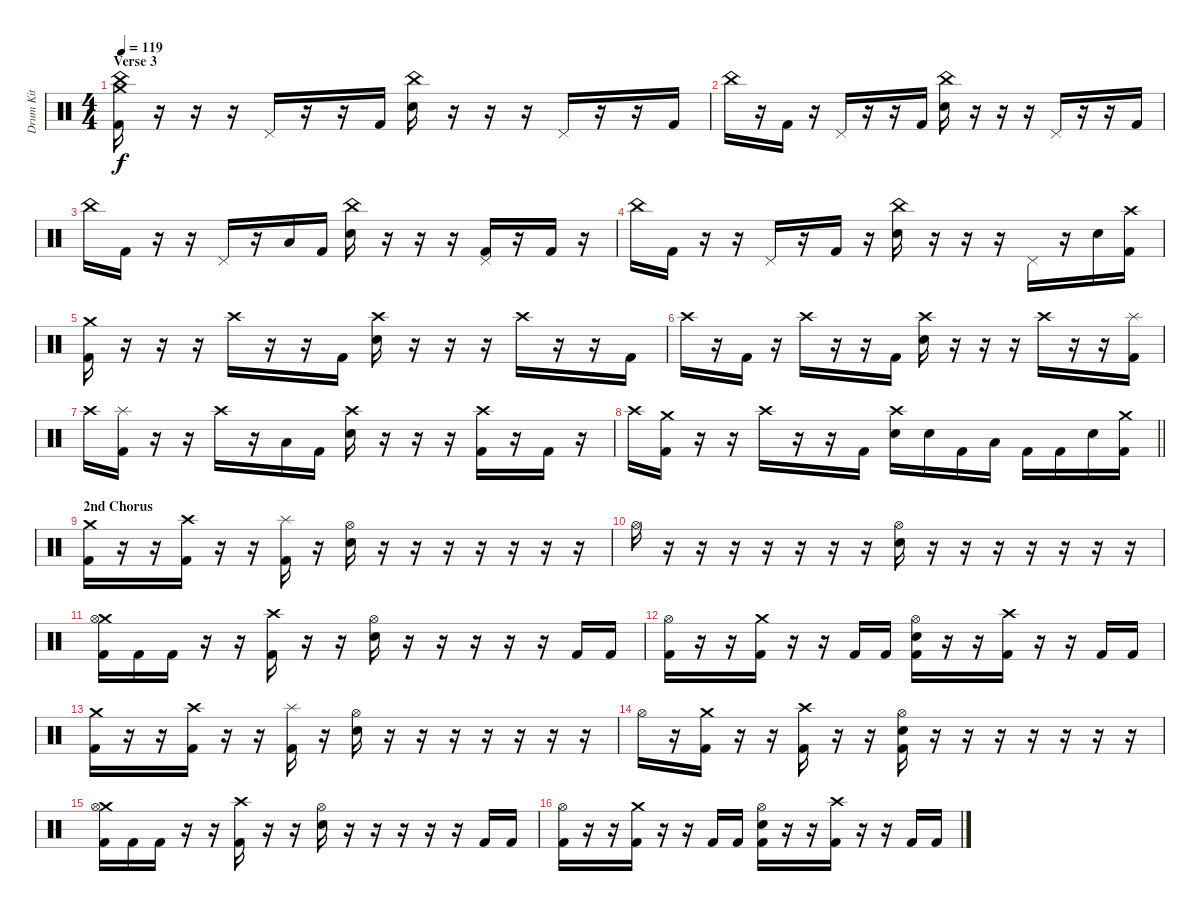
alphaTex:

\track ("Drum Kit" "Drum Kit") {instrument percussion}
\staff {score}
\articulation defaults
\ts (4 4)
\section ("" "Verse 3")
\tempo 119
\clef neutral
\ks c
("Crash medium (hit)" "China (hit)" "Kick (hit) 2").16{dy f} r.16 r.16 r.16 "Pedal Hi-Hat (hit)".16 r.16 r.16 "Kick (hit) 2".16 ("China (hit)" "Electric Snare (hit)").16 r.16 r.16 r.16 "Pedal Hi-Hat (hit)".16 r.16 r.16 "Kick (hit) 2".16 |
"China (hit)".16 r.16 "Kick (hit) 2".16 r.16 "Pedal Hi-Hat (hit)".16 r.16 r.16 "Kick (hit) 2".16 ("China (hit)" "Electric Snare (hit)").16 r.16 r.16 r.16 "Pedal Hi-Hat (hit)".16 r.16 r.16 "Kick (hit) 2".16 |
"China (hit)".16 "Kick (hit) 2".16 r.16 r.16 "Pedal Hi-Hat (hit)".16 r.16 "Low Tom (hit)".16 "Kick (hit) 2".16 ("China (hit)" "Electric Snare (hit)").16 r.16 r.16 r.16 ("Pedal Hi-Hat (hit)" "Kick (hit) 2").16 r.16 "Kick (hit) 2".16 r.16 |
"China (hit)".16 "Kick (hit) 2".16 r.16 r.16 "Pedal Hi-Hat (hit)".16 r.16 "Kick (hit) 2".16 r.16 ("China (hit)" "Electric Snare (hit)").16 r.16 r.16 r.16 "Pedal Hi-Hat (hit)".16 r.16 "Electric Snare (hit)".16 ("Crash high (hit)" "Kick (hit) 2").16 |
("Crash medium (hit)" "Kick (hit) 2").16 r.16 r.16 r.16 "Crash high (hit)".16 r.16 r.16 "Kick (hit) 2".16 ("Crash high (hit)" "Electric Snare (hit)").16 r.16 r.16 r.16 "Crash high (hit)".16 r.16 r.16 "Kick (hit) 2".16 |
"Crash high (hit)".16 r.16 "Kick (hit) 2".16 r.16 "Crash high (hit)".16 r.16 r.16 "Kick (hit) 2".16 ("Crash high (hit)" "Electric Snare (hit)").16 r.16 r.16 r.16 "Crash high (hit)".16 r.16 r.16 ("Splash (hit)" "Kick (hit) 2").16 |
"Crash high (hit)".16 ("Splash (hit)" "Kick (hit) 2").16 r.16 r.16 "Crash high (hit)".16 r.16 "Low Tom (hit)".16 "Kick (hit) 2".16 ("Crash high (hit)" "Electric Snare (hit)").16 r.16 r.16 r.16 ("Crash high (hit)" "Kick (hit) 2").16 r.16 "Kick (hit) 2".16 r.16 |
\barLineRight lightlight "Crash high (hit)".16
("Crash medium (hit)" "Kick (hit) 2").16 r.16 r.16 "Crash high (hit)".16 r.16 r.16 "Kick (hit) 2".16 ("Crash high (hit)" "Electric Snare (hit)").16 "Electric Snare (hit)".16 "Kick (hit) 2".16 "Low Tom (hit)".16 "Kick (hit) 2".16 "Kick (hit) 2".16 "Electric Snare (hit)".16 ("Crash medium (hit)" "Kick (hit) 2").16 |
\section ("" "2nd Chorus")
("Crash medium (hit)" "Kick (hit) 2").16 r.16 r.16 ("Crash high (hit)" "Kick (hit) 2").16 r.16 r.16 ("Splash (hit)" "Kick (hit) 2").16 r.16 ("Hi-Hat (open)" "Electric Snare (hit)").16 r.16 r.16 r.16 r.16 r.16 r.16 r.16 |
"Hi-Hat (open)".16 r.16 r.16 r.16 r.16 r.16 r.16 r.16 ("Hi-Hat (open)" "Electric Snare (hit)").16 r.16 r.16 r.16 r.16 r.16 r.16 r.16 |
("Crash medium (hit)" "Hi-Hat (open)" "Kick (hit) 2").16 "Kick (hit) 2".16 "Kick (hit) 2".16 r.16 r.16 ("Crash high (hit)" "Kick (hit) 2").16 r.16 r.16 ("Hi-Hat (open)" "Electric Snare (hit)").16 r.16 r.16 r.16 r.16 r.16 "Kick (hit) 2".16 "Kick (hit) 2".16 |
("Hi-Hat (open)" "Kick (hit) 2").16 r.16 r.16 ("Crash medium (hit)" "Kick (hit) 2").16 r.16 r.16 "Kick (hit) 2".16 "Kick (hit) 2".16 ("Hi-Hat (open)" "Electric Snare (hit)" "Kick (hit) 2").16 r.16 r.16 ("Crash high (hit)" "Kick (hit) 2").16 r.16 r.16 "Kick (hit) 2".16 "Kick (hit) 2".16 |
("Crash medium (hit)" "Kick (hit) 2").16 r.16 r.16 ("Crash high (hit)" "Kick (hit) 2").16 r.16 r.16 ("Splash (hit)" "Kick (hit) 2").16 r.16 ("Hi-Hat (open)" "Electric Snare (hit)").16 r.16 r.16 r.16 r.16 r.16 r.16 r.16 |
"Hi-Hat (open)".16 r.16 ("Crash medium (hit)" "Kick (hit) 2").16 r.16 r.16 ("Crash high (hit)" "Kick (hit) 2").16 r.16 r.16 ("Hi-Hat (open)" "Electric Snare (hit)" "Kick (hit) 2").16 r.16 r.16 r.16 r.16 r.16 r.16 r.16 |
("Crash medium (hit)" "Hi-Hat (open)" "Kick (hit) 2").16 "Kick (hit) 2".16 "Kick (hit) 2".16 r.16 r.16 ("Crash high (hit)" "Kick (hit) 2").16 r.16 r.16 ("Hi-Hat (open)" "Electric Snare (hit)").16 r.16 r.16 r.16 r.16 r.16 "Kick (hit) 2".16 "Kick (hit) 2".16 |
("Hi-Hat (open)" "Kick (hit) 2").16 r.16 r.16 ("Crash medium (hit)" "Kick (hit) 2").16 r.16 r.16 "Kick (hit) 2".16 "Kick (hit) 2".16 ("Hi-Hat (open)" "Electric Snare (hit)" "Kick (hit) 2").16 r.16 r.16 ("Crash high (hit)" "Kick (hit) 2").16 r.16 r.16 "Kick (hit) 2".16 "Kick (hit) 2".16
